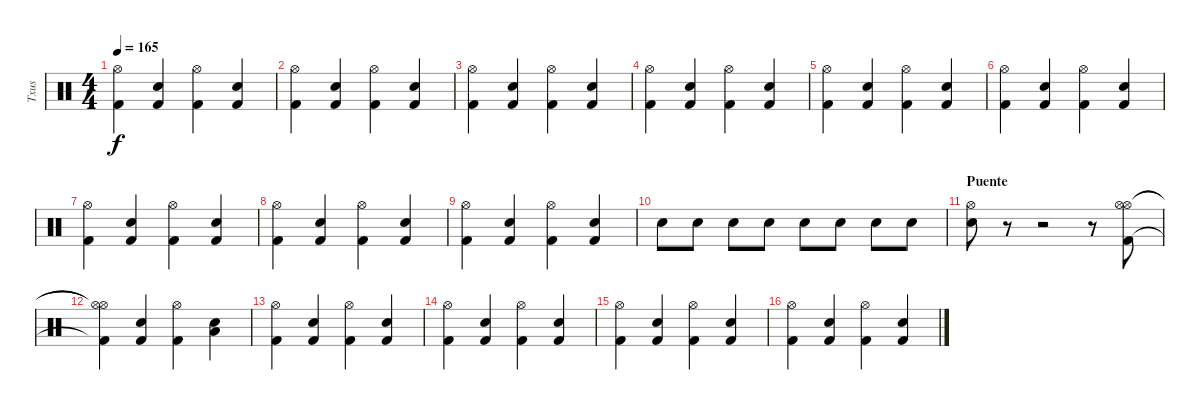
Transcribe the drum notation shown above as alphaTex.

\track ("Txus" "Txus") {instrument percussion}
\staff {score}
\articulation defaults
\ts (4 4)
\tempo 165
\clef neutral
\ks c
("Hi-Hat (open)" "Kick (hit) 2").4{dy f} ("Snare (hit) 2" "Kick (hit) 2").4 ("Hi-Hat (open)" "Kick (hit) 2").4 ("Snare (hit) 2" "Kick (hit) 2").4 |
("Hi-Hat (open)" "Kick (hit) 2").4 ("Snare (hit) 2" "Kick (hit) 2").4 ("Hi-Hat (open)" "Kick (hit) 2").4 ("Snare (hit) 2" "Kick (hit) 2").4 |
("Hi-Hat (open)" "Kick (hit) 2").4 ("Snare (hit) 2" "Kick (hit) 2").4 ("Hi-Hat (open)" "Kick (hit) 2").4 ("Snare (hit) 2" "Kick (hit) 2").4 |
("Hi-Hat (open)" "Kick (hit) 2").4 ("Snare (hit) 2" "Kick (hit) 2").4 ("Hi-Hat (open)" "Kick (hit) 2").4 ("Snare (hit) 2" "Kick (hit) 2").4 |
("Hi-Hat (open)" "Kick (hit) 2").4 ("Snare (hit) 2" "Kick (hit) 2").4 ("Hi-Hat (open)" "Kick (hit) 2").4 ("Snare (hit) 2" "Kick (hit) 2").4 |
("Hi-Hat (open)" "Kick (hit) 2").4 ("Snare (hit) 2" "Kick (hit) 2").4 ("Hi-Hat (open)" "Kick (hit) 2").4 ("Snare (hit) 2" "Kick (hit) 2").4 |
("Hi-Hat (open)" "Kick (hit) 2").4 ("Snare (hit) 2" "Kick (hit) 2").4 ("Hi-Hat (open)" "Kick (hit) 2").4 ("Snare (hit) 2" "Kick (hit) 2").4 |
("Hi-Hat (open)" "Kick (hit) 2").4 ("Snare (hit) 2" "Kick (hit) 2").4 ("Hi-Hat (open)" "Kick (hit) 2").4 ("Snare (hit) 2" "Kick (hit) 2").4 |
("Hi-Hat (open)" "Kick (hit) 2").4 ("Snare (hit) 2" "Kick (hit) 2").4 ("Hi-Hat (open)" "Kick (hit) 2").4 ("Snare (hit) 2" "Kick (hit) 2").4 |
"Snare (hit) 2".8 "Snare (hit) 2".8 "Snare (hit) 2".8 "Snare (hit) 2".8 "Snare (hit) 2".8 "Snare (hit) 2".8 "Snare (hit) 2".8 "Snare (hit) 2".8 |
\section ("" "Puente")
("Snare (hit) 2" "Hi-Hat (open)").8 r.8 r.2 r.8 ("Hi-Hat (open)" "Hi-Hat (open)" "Kick (hit) 2").8 |
("Hi-Hat (open)"{t} "Hi-Hat (open)"{t} "Kick (hit) 2"{t}).4 ("Snare (hit) 2" "Kick (hit) 2").4 ("Hi-Hat (open)" "Kick (hit) 2").4 ("Snare (hit) 2" "Low Tom (hit)").4 |
("Hi-Hat (open)" "Kick (hit) 2").4 ("Snare (hit) 2" "Kick (hit) 2").4 ("Hi-Hat (open)" "Kick (hit) 2").4 ("Snare (hit) 2" "Kick (hit) 2").4 |
("Hi-Hat (open)" "Kick (hit) 2").4 ("Snare (hit) 2" "Kick (hit) 2").4 ("Hi-Hat (open)" "Kick (hit) 2").4 ("Snare (hit) 2" "Kick (hit) 2").4 |
("Hi-Hat (open)" "Kick (hit) 2").4 ("Snare (hit) 2" "Kick (hit) 2").4 ("Hi-Hat (open)" "Kick (hit) 2").4 ("Snare (hit) 2" "Kick (hit) 2").4 |
("Hi-Hat (open)" "Kick (hit) 2").4 ("Snare (hit) 2" "Kick (hit) 2").4 ("Hi-Hat (open)" "Kick (hit) 2").4 ("Snare (hit) 2" "Kick (hit) 2").4
